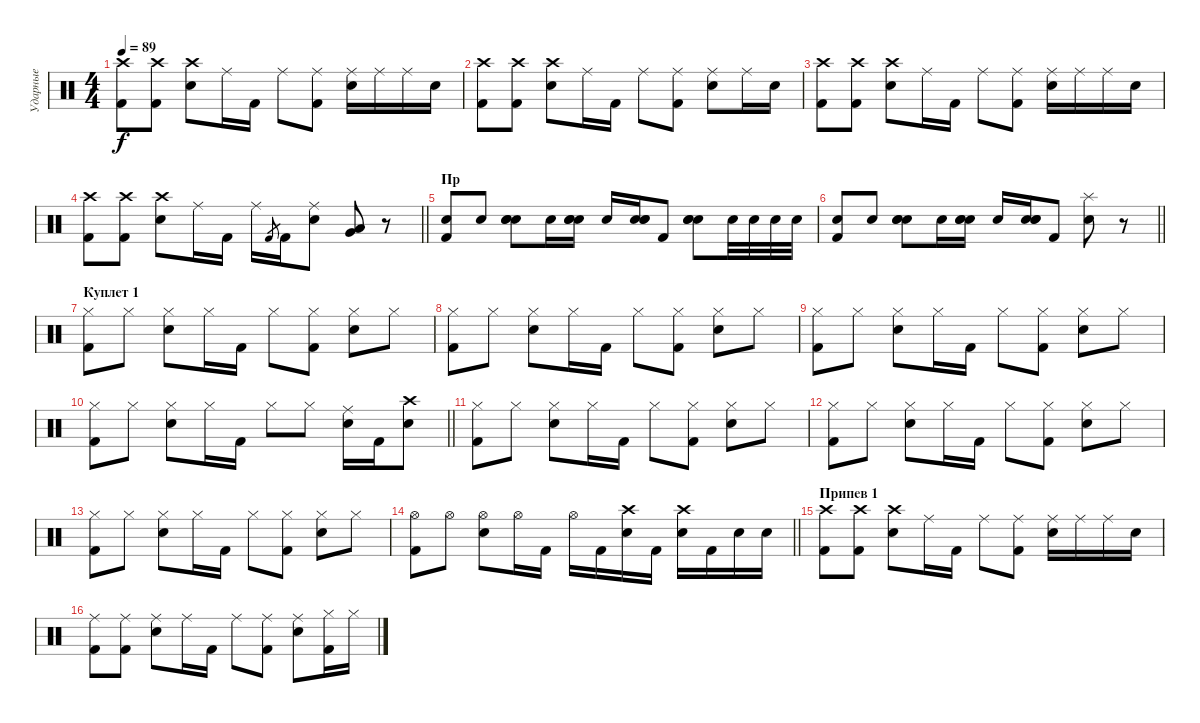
\track ("Ударные" "Ударные") {instrument percussion}
\staff {score}
\articulation defaults
\ts (4 4)
\tempo 89
\clef neutral
\ks c
("Crash high (hit)" "Kick (hit) 2").8{dy f} ("Crash high (hit)" "Kick (hit) 2").8 ("Crash high (hit)" "Snare (hit) 2").8 "Ride (middle)".16 "Kick (hit) 2".16 "Ride (middle)".8 ("Ride (middle)" "Kick (hit) 2").8 ("Ride (middle)" "Snare (hit) 2").16 "Ride (middle)".16 "Ride (middle)".16 "Snare (hit) 2".16 |
("Crash high (hit)" "Kick (hit) 2").8 ("Crash high (hit)" "Kick (hit) 2").8 ("Crash high (hit)" "Snare (hit) 2").8 "Ride (middle)".16 "Kick (hit) 2".16 "Ride (middle)".8 ("Ride (middle)" "Kick (hit) 2").8 ("Ride (middle)" "Snare (hit) 2").8 "Ride (middle)".16 "Snare (hit) 2".16 |
("Crash high (hit)" "Kick (hit) 2").8 ("Crash high (hit)" "Kick (hit) 2").8 ("Crash high (hit)" "Snare (hit) 2").8 "Ride (middle)".16 "Kick (hit) 2".16 "Ride (middle)".8 ("Ride (middle)" "Kick (hit) 2").8 ("Ride (middle)" "Snare (hit) 2").16 "Ride (middle)".16 "Ride (middle)".16 "Snare (hit) 2".16 |
\barLineRight lightlight
("Crash high (hit)" "Kick (hit) 2").8 ("Crash high (hit)" "Kick (hit) 2").8 ("Crash high (hit)" "Snare (hit) 2").8 "Ride (middle)".16 "Kick (hit) 2".16 "Ride (middle)".16 "Kick (hit) 2".8{gr} "Kick (hit) 2".16 ("Ride (middle)" "Snare (hit) 2").8 ("Low Floor Tom (hit)" "Very Low Tom (hit)").8 r.8 |
\section ("" "Пр")
("Snare (hit) 2" "Kick (hit) 2").8 "Snare (hit) 2".8 ("Snare (hit) 2" "Snare (hit) 2" "Electric Snare (hit)").8 "Snare (hit) 2".16 ("Snare (hit) 2" "Snare (hit) 2" "Electric Snare (hit)").16 "Snare (hit) 2".16 ("Snare (hit) 2" "Snare (hit) 2" "Electric Snare (hit)").16 "Kick (hit) 2".8 ("Snare (hit) 2" "Snare (hit) 2" "Electric Snare (hit)").8 "Snare (hit) 2".32 "Snare (hit) 2".32 "Snare (hit) 2".32 "Snare (hit) 2".32 |
\barLineRight lightlight
("Snare (hit) 2" "Kick (hit) 2").8 "Snare (hit) 2".8 ("Electric Snare (hit)" "Snare (hit) 2" "Snare (hit) 2").8 "Snare (hit) 2".16 ("Electric Snare (hit)" "Snare (hit) 2" "Snare (hit) 2").16 "Snare (hit) 2".16 ("Electric Snare (hit)" "Snare (hit) 2" "Snare (hit) 2").16 "Kick (hit) 2".8 ("Snare (hit) 2" "Splash (hit)").8 r.8 |
\section ("" "Куплет 1")
("Hi-Hat (closed)" "Kick (hit) 2").8 "Hi-Hat (closed)".8 ("Hi-Hat (closed)" "Snare (hit) 2").8 "Hi-Hat (closed)".16 "Kick (hit) 2".16 "Hi-Hat (closed)".8 ("Hi-Hat (closed)" "Kick (hit) 2").8 ("Hi-Hat (closed)" "Snare (hit) 2").8 "Hi-Hat (closed)".8 |
("Hi-Hat (closed)" "Kick (hit) 2").8 "Hi-Hat (closed)".8 ("Hi-Hat (closed)" "Snare (hit) 2").8 "Hi-Hat (closed)".16 "Kick (hit) 2".16 "Hi-Hat (closed)".8 ("Hi-Hat (closed)" "Kick (hit) 2").8 ("Hi-Hat (closed)" "Snare (hit) 2").8 "Hi-Hat (closed)".8 |
("Hi-Hat (closed)" "Kick (hit) 2").8 "Hi-Hat (closed)".8 ("Hi-Hat (closed)" "Snare (hit) 2").8 "Hi-Hat (closed)".16 "Kick (hit) 2".16 "Hi-Hat (closed)".8 ("Hi-Hat (closed)" "Kick (hit) 2").8 ("Hi-Hat (closed)" "Snare (hit) 2").8 "Hi-Hat (closed)".8 |
\barLineRight lightlight
("Hi-Hat (closed)" "Kick (hit) 2").8 "Hi-Hat (closed)".8 ("Hi-Hat (closed)" "Snare (hit) 2").8 "Hi-Hat (closed)".16 "Kick (hit) 2".16 "Hi-Hat (closed)".8 "Hi-Hat (closed)".8 ("Ride (middle)" "Snare (hit) 2").16 "Kick (hit) 2".16 ("Crash high (hit)" "Snare (hit) 2").8 |
("Hi-Hat (closed)" "Kick (hit) 2").8 "Hi-Hat (closed)".8 ("Hi-Hat (closed)" "Snare (hit) 2").8 "Hi-Hat (closed)".16 "Kick (hit) 2".16 "Hi-Hat (closed)".8 ("Hi-Hat (closed)" "Kick (hit) 2").8 ("Hi-Hat (closed)" "Snare (hit) 2").8 "Hi-Hat (closed)".8 |
("Hi-Hat (closed)" "Kick (hit) 2").8 "Hi-Hat (closed)".8 ("Hi-Hat (closed)" "Snare (hit) 2").8 "Hi-Hat (closed)".16 "Kick (hit) 2".16 "Hi-Hat (closed)".8 ("Hi-Hat (closed)" "Kick (hit) 2").8 ("Hi-Hat (closed)" "Snare (hit) 2").8 "Hi-Hat (closed)".8 |
("Hi-Hat (closed)" "Kick (hit) 2").8 "Hi-Hat (closed)".8 ("Hi-Hat (closed)" "Snare (hit) 2").8 "Hi-Hat (closed)".16 "Kick (hit) 2".16 "Hi-Hat (closed)".8 ("Hi-Hat (closed)" "Kick (hit) 2").8 ("Hi-Hat (closed)" "Snare (hit) 2").8 "Hi-Hat (closed)".8 |
\barLineRight lightlight
("Hi-Hat (open)" "Kick (hit) 2").8 "Hi-Hat (open)".8 ("Hi-Hat (open)" "Snare (hit) 2").8 "Hi-Hat (open)".16 "Kick (hit) 2".16 "Hi-Hat (open)".16 "Kick (hit) 2".16 ("Crash high (hit)" "Snare (hit) 2").16 "Kick (hit) 2".16 ("Crash high (hit)" "Snare (hit) 2").16 "Kick (hit) 2".16 "Snare (hit) 2".16 "Snare (hit) 2".16 |
\section ("" "Припев 1")
("Crash high (hit)" "Kick (hit) 2").8 ("Crash high (hit)" "Kick (hit) 2").8 ("Crash high (hit)" "Snare (hit) 2").8 "Ride (middle)".16 "Kick (hit) 2".16 "Ride (middle)".8 ("Ride (middle)" "Kick (hit) 2").8 ("Ride (middle)" "Snare (hit) 2").16 "Ride (middle)".16 "Ride (middle)".16 "Snare (hit) 2".16 |
("Ride (middle)" "Kick (hit) 2").8 ("Ride (middle)" "Kick (hit) 2").8 ("Ride (middle)" "Snare (hit) 2").8 "Ride (middle)".16 "Kick (hit) 2".16 "Ride (middle)".8 ("Ride (middle)" "Kick (hit) 2").8 ("Ride (middle)" "Snare (hit) 2").8 ("Hi-Hat (closed)" "Kick (hit) 2").16 "Hi-Hat (closed)".16
